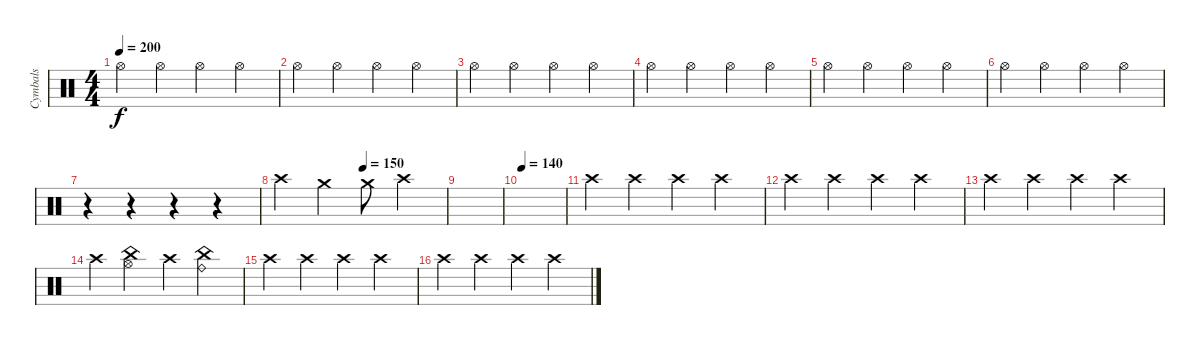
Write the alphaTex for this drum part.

\track ("Cymbals" "Cymbals") {instrument percussion}
\staff {score}
\articulation defaults
\ts (4 4)
\tempo 200
\clef neutral
\ks c "Hi-Hat (open)".4{dy f} "Hi-Hat (open)".4 "Hi-Hat (open)".4 "Hi-Hat (open)".4
|
"Hi-Hat (open)".4 "Hi-Hat (open)".4 "Hi-Hat (open)".4 "Hi-Hat (open)".4 |
"Hi-Hat (open)".4 "Hi-Hat (open)".4 "Hi-Hat (open)".4 "Hi-Hat (open)".4 |
"Hi-Hat (open)".4 "Hi-Hat (open)".4 "Hi-Hat (open)".4 "Hi-Hat (open)".4 |
"Hi-Hat (open)".4 "Hi-Hat (open)".4 "Hi-Hat (open)".4 "Hi-Hat (open)".4 |
"Hi-Hat (open)".4 "Hi-Hat (open)".4 "Hi-Hat (open)".4 "Hi-Hat (open)".4 |
r.4 r.4 r.4 r.4 |
\tempo (150 0.5)
"Crash high (hit)".4 "Crash medium (hit)".4 "Crash medium (hit)".8 "Crash high (hit)".4 |
|
\tempo 140
|
"Crash high (hit)".4 "Crash high (hit)".4 "Crash high (hit)".4 "Crash high (hit)".4 |
"Crash high (hit)".4 "Crash high (hit)".4 "Crash high (hit)".4 "Crash high (hit)".4 |
"Crash high (hit)".4 "Crash high (hit)".4 "Crash high (hit)".4 "Crash high (hit)".4 |
"Crash high (hit)".4 ("China (hit)" "Hi-Hat (open)").4 "Crash high (hit)".4 ("China (hit)" "Ride (bell)").4 |
"Crash high (hit)".4 "Crash high (hit)".4 "Crash high (hit)".4 "Crash high (hit)".4 |
"Crash high (hit)".4 "Crash high (hit)".4 "Crash high (hit)".4 "Crash high (hit)".4
